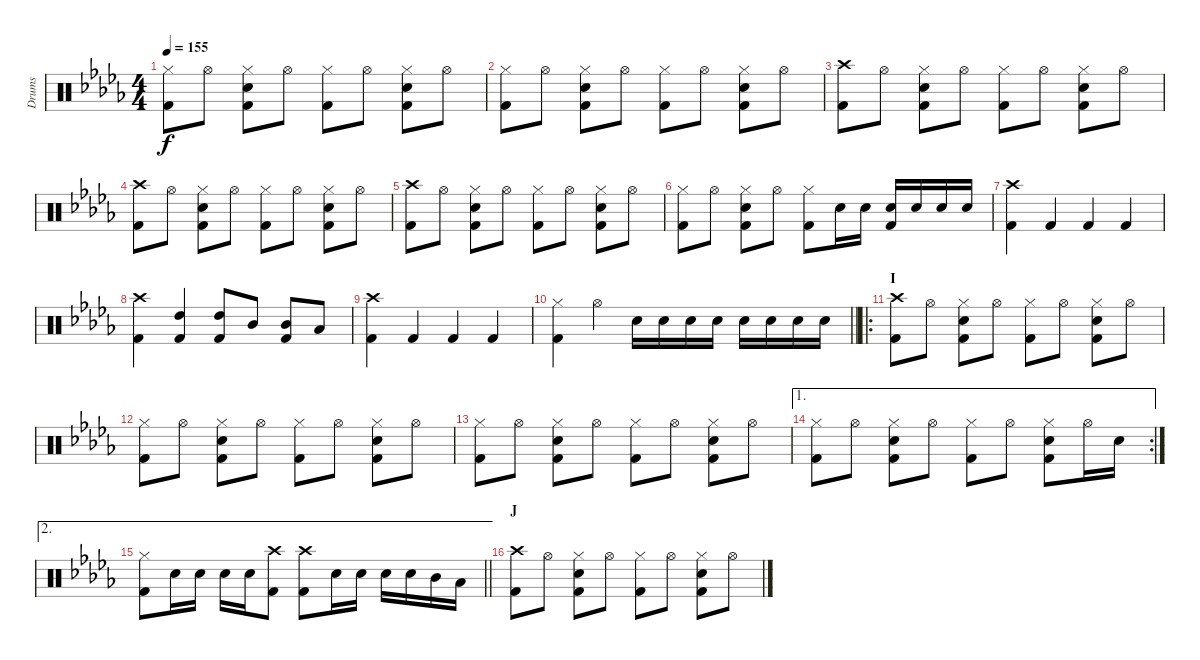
\track ("Drums" "Drums") {instrument percussion}
\staff {score}
\articulation defaults
\ts (4 4)
\tempo 155
\clef neutral
\ks db
("Hi-Hat (closed)" "Kick (hit) 2").8{dy f} "Hi-Hat (open)".8 ("Hi-Hat (closed)" "Snare (hit) 2" "Kick (hit) 2").8 "Hi-Hat (open)".8 ("Hi-Hat (closed)" "Kick (hit) 2").8 "Hi-Hat (open)".8 ("Hi-Hat (closed)" "Snare (hit) 2" "Kick (hit) 2").8 "Hi-Hat (open)".8 |
("Hi-Hat (closed)" "Kick (hit) 2").8 "Hi-Hat (open)".8 ("Hi-Hat (closed)" "Snare (hit) 2" "Kick (hit) 2").8 "Hi-Hat (open)".8 ("Hi-Hat (closed)" "Kick (hit) 2").8 "Hi-Hat (open)".8 ("Hi-Hat (closed)" "Snare (hit) 2" "Kick (hit) 2").8 "Hi-Hat (open)".8 |
("Crash high (hit)" "Kick (hit) 2").8 "Hi-Hat (open)".8 ("Hi-Hat (closed)" "Snare (hit) 2" "Kick (hit) 2").8 "Hi-Hat (open)".8 ("Hi-Hat (closed)" "Kick (hit) 2").8 "Hi-Hat (open)".8 ("Hi-Hat (closed)" "Snare (hit) 2" "Kick (hit) 2").8 "Hi-Hat (open)".8 |
("Crash high (hit)" "Kick (hit) 2").8 "Hi-Hat (open)".8 ("Hi-Hat (closed)" "Snare (hit) 2" "Kick (hit) 2").8 "Hi-Hat (open)".8 ("Hi-Hat (closed)" "Kick (hit) 2").8 "Hi-Hat (open)".8 ("Hi-Hat (closed)" "Snare (hit) 2" "Kick (hit) 2").8 "Hi-Hat (open)".8 |
("Crash high (hit)" "Kick (hit) 2").8 "Hi-Hat (open)".8 ("Hi-Hat (closed)" "Snare (hit) 2" "Kick (hit) 2").8 "Hi-Hat (open)".8 ("Hi-Hat (closed)" "Kick (hit) 2").8 "Hi-Hat (open)".8 ("Hi-Hat (closed)" "Snare (hit) 2" "Kick (hit) 2").8 "Hi-Hat (open)".8 |
("Hi-Hat (closed)" "Kick (hit) 2").8 "Hi-Hat (open)".8 ("Hi-Hat (closed)" "Snare (hit) 2" "Kick (hit) 2").8 "Hi-Hat (open)".8 ("Hi-Hat (closed)" "Kick (hit) 2").8 "Snare (hit) 2".16 "Snare (hit) 2".16 ("Snare (hit) 2" "Kick (hit) 2").16 "Snare (hit) 2".16 "Snare (hit) 2".16 "Snare (hit) 2".16 |
("Crash high (hit)" "Kick (hit) 2").4 "Kick (hit) 2".4 "Kick (hit) 2".4 "Kick (hit) 2".4 |
("Crash high (hit)" "Kick (hit) 2").4 ("High Tom (hit)" "Kick (hit) 2").4 ("High Tom (hit)" "Kick (hit) 2").8 "Mid Tom (hit)".8 ("Mid Tom (hit)" "Kick (hit) 2").8 "Low Tom (hit)".8 |
("Crash high (hit)" "Kick (hit) 2").4 "Kick (hit) 2".4 "Kick (hit) 2".4 "Kick (hit) 2".4 |
\barLineRight lightlight
("Hi-Hat (closed)" "Kick (hit) 2").4 "Hi-Hat (open)".4 "Snare (hit) 2".16 "Snare (hit) 2".16 "Snare (hit) 2".16 "Snare (hit) 2".16 "Snare (hit) 2".16 "Snare (hit) 2".16 "Snare (hit) 2".16 "Snare (hit) 2".16 |
\ro
\section ("" "I")
("Crash high (hit)" "Kick (hit) 2").8 "Hi-Hat (open)".8 ("Hi-Hat (closed)" "Snare (hit) 2" "Kick (hit) 2").8 "Hi-Hat (open)".8 ("Hi-Hat (closed)" "Kick (hit) 2").8 "Hi-Hat (open)".8 ("Hi-Hat (closed)" "Snare (hit) 2" "Kick (hit) 2").8 "Hi-Hat (open)".8 |
("Hi-Hat (closed)" "Kick (hit) 2").8 "Hi-Hat (open)".8 ("Hi-Hat (closed)" "Snare (hit) 2" "Kick (hit) 2").8 "Hi-Hat (open)".8 ("Hi-Hat (closed)" "Kick (hit) 2").8 "Hi-Hat (open)".8 ("Hi-Hat (closed)" "Snare (hit) 2" "Kick (hit) 2").8 "Hi-Hat (open)".8 |
("Hi-Hat (closed)" "Kick (hit) 2").8 "Hi-Hat (open)".8 ("Hi-Hat (closed)" "Snare (hit) 2" "Kick (hit) 2").8 "Hi-Hat (open)".8 ("Hi-Hat (closed)" "Kick (hit) 2").8 "Hi-Hat (open)".8 ("Hi-Hat (closed)" "Snare (hit) 2" "Kick (hit) 2").8 "Hi-Hat (open)".8 |
\ae 1
\rc 2
("Hi-Hat (closed)" "Kick (hit) 2").8 "Hi-Hat (open)".8 ("Hi-Hat (closed)" "Snare (hit) 2" "Kick (hit) 2").8 "Hi-Hat (open)".8 ("Hi-Hat (closed)" "Kick (hit) 2").8 "Hi-Hat (open)".8 ("Hi-Hat (closed)" "Snare (hit) 2" "Kick (hit) 2").8 "Hi-Hat (open)".16 "Snare (hit) 2".16 |
\ae 2
\barLineRight lightlight
("Hi-Hat (closed)" "Kick (hit) 2").8 "Snare (hit) 2".16 "Snare (hit) 2".16 "Snare (hit) 2".16 "Snare (hit) 2".16 ("Crash high (hit)" "Kick (hit) 2").8 ("Crash high (hit)" "Kick (hit) 2").8 "Snare (hit) 2".16 "Snare (hit) 2".16 "Snare (hit) 2".16 "Snare (hit) 2".16 "Mid Tom (hit)".16 "Low Tom (hit)".16 |
\section ("" "J")
("Crash high (hit)" "Kick (hit) 2").8 "Hi-Hat (open)".8 ("Hi-Hat (closed)" "Snare (hit) 2" "Kick (hit) 2").8 "Hi-Hat (open)".8 ("Hi-Hat (closed)" "Kick (hit) 2").8 "Hi-Hat (open)".8 ("Hi-Hat (closed)" "Snare (hit) 2" "Kick (hit) 2").8 "Hi-Hat (open)".8
